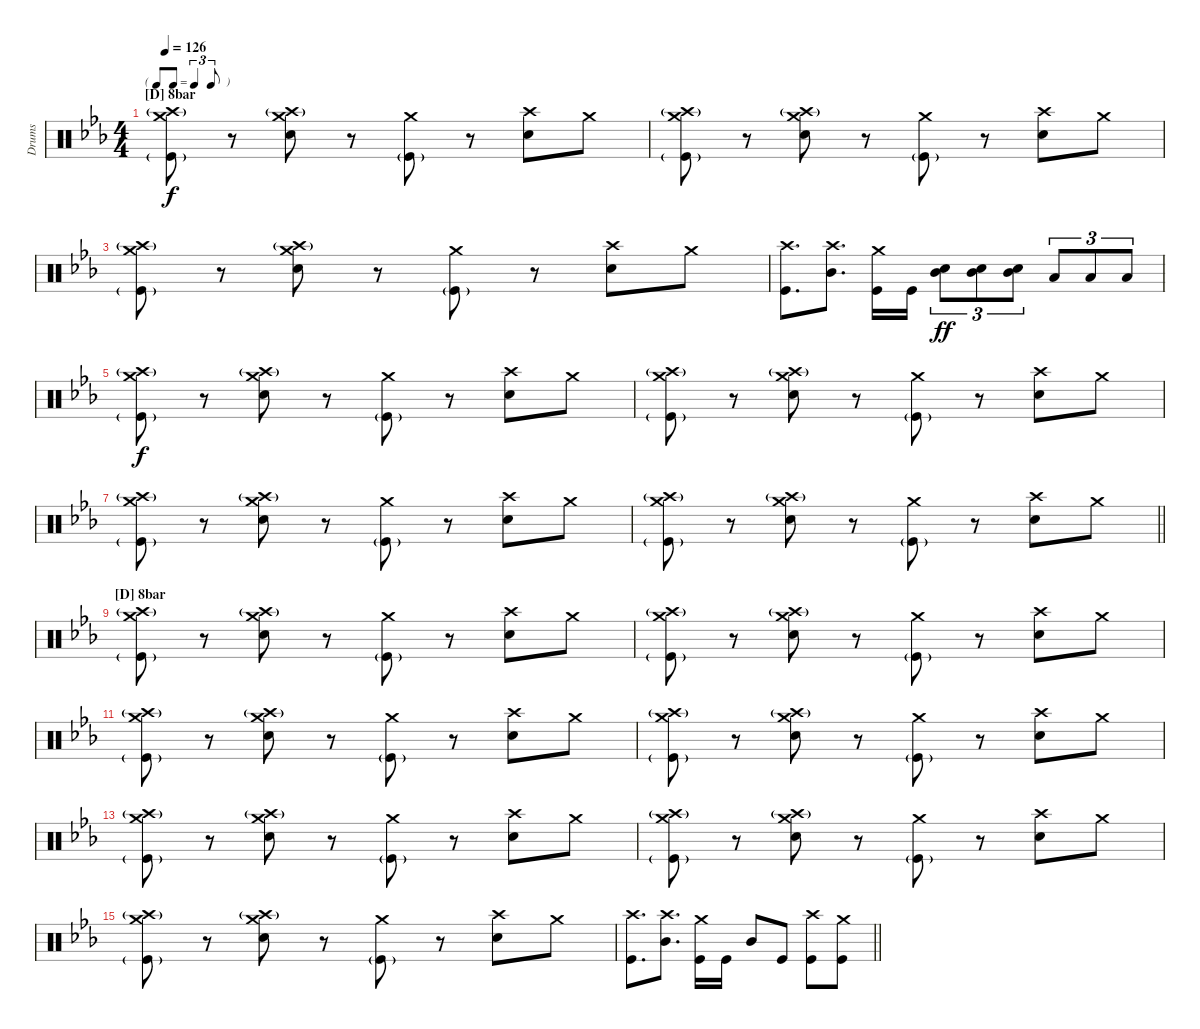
\bracketExtendMode nobrackets
\otherSystemsTrackNameOrientation horizontal
\defaultBarNumberDisplay FirstOfSystem
\track ("Drumkit" "Drums") {instrument percussion}
\staff {score}
\articulation defaults
\ts (4 4)
\tf triplet8th
\section ("D" "8bar")
\tempo 126
\clef neutral
\ks cminor
("Kick (hit)"{g} "Crash medium (hit)" "Crash high (hit)"{g}).8{dy f} r.8 ("Snare (hit) 2" "Crash medium (hit)" "Crash high (hit)"{g}).8 r.8 ("Kick (hit)"{g} "Crash medium (hit)").8 r.8 ("Snare (hit) 2" "Crash high (hit)").8 "Crash medium (hit)".8 |
("Kick (hit)"{g} "Crash medium (hit)" "Crash high (hit)"{g}).8 r.8 ("Snare (hit) 2" "Crash medium (hit)" "Crash high (hit)"{g}).8 r.8 ("Kick (hit)"{g} "Crash medium (hit)").8 r.8 ("Snare (hit) 2" "Crash high (hit)").8 "Crash medium (hit)".8 |
("Kick (hit)"{g} "Crash medium (hit)" "Crash high (hit)"{g}).8 r.8 ("Snare (hit) 2" "Crash medium (hit)" "Crash high (hit)"{g}).8 r.8 ("Kick (hit)"{g} "Crash medium (hit)").8 r.8 ("Snare (hit) 2" "Crash high (hit)").8 "Crash medium (hit)".8 |
("Kick (hit)" "Crash high (hit)").8{d} ("Mid Tom (hit)" "Crash high (hit)").8{d} ("Kick (hit)" "Crash medium (hit)").16 "Kick (hit)".16 ("Mid Tom (hit)" "Snare (hit) 2").8{tu (3 2) dy ff} ("Mid Tom (hit)" "Snare (hit) 2").8{tu (3 2)} ("Mid Tom (hit)" "Snare (hit) 2").8{tu (3 2)} "Low Tom (hit)".8{tu (3 2)} "Low Tom (hit)".8{tu (3 2)} "Low Tom (hit)".8{tu (3 2)} |
("Kick (hit)"{g} "Crash medium (hit)" "Crash high (hit)"{g}).8{dy f} r.8 ("Snare (hit) 2" "Crash medium (hit)" "Crash high (hit)"{g}).8 r.8 ("Kick (hit)"{g} "Crash medium (hit)").8 r.8 ("Snare (hit) 2" "Crash high (hit)").8 "Crash medium (hit)".8 |
("Kick (hit)"{g} "Crash medium (hit)" "Crash high (hit)"{g}).8 r.8 ("Snare (hit) 2" "Crash medium (hit)" "Crash high (hit)"{g}).8 r.8 ("Kick (hit)"{g} "Crash medium (hit)").8 r.8 ("Snare (hit) 2" "Crash high (hit)").8 "Crash medium (hit)".8 |
("Kick (hit)"{g} "Crash medium (hit)" "Crash high (hit)"{g}).8 r.8 ("Snare (hit) 2" "Crash medium (hit)" "Crash high (hit)"{g}).8 r.8 ("Kick (hit)"{g} "Crash medium (hit)").8 r.8 ("Snare (hit) 2" "Crash high (hit)").8 "Crash medium (hit)".8 |
\barLineRight lightlight
("Kick (hit)"{g} "Crash medium (hit)" "Crash high (hit)"{g}).8 r.8 ("Snare (hit) 2" "Crash medium (hit)" "Crash high (hit)"{g}).8 r.8 ("Kick (hit)"{g} "Crash medium (hit)").8 r.8 ("Snare (hit) 2" "Crash high (hit)").8 "Crash medium (hit)".8 |
\section ("D" "8bar")
("Kick (hit)"{g} "Crash medium (hit)" "Crash high (hit)"{g}).8 r.8 ("Snare (hit) 2" "Crash medium (hit)" "Crash high (hit)"{g}).8 r.8 ("Kick (hit)"{g} "Crash medium (hit)").8 r.8 ("Snare (hit) 2" "Crash high (hit)").8 "Crash medium (hit)".8 |
("Kick (hit)"{g} "Crash medium (hit)" "Crash high (hit)"{g}).8 r.8 ("Snare (hit) 2" "Crash medium (hit)" "Crash high (hit)"{g}).8 r.8 ("Kick (hit)"{g} "Crash medium (hit)").8 r.8 ("Snare (hit) 2" "Crash high (hit)").8 "Crash medium (hit)".8 |
("Kick (hit)"{g} "Crash medium (hit)" "Crash high (hit)"{g}).8 r.8 ("Snare (hit) 2" "Crash medium (hit)" "Crash high (hit)"{g}).8 r.8 ("Kick (hit)"{g} "Crash medium (hit)").8 r.8 ("Snare (hit) 2" "Crash high (hit)").8 "Crash medium (hit)".8 |
("Kick (hit)"{g} "Crash medium (hit)" "Crash high (hit)"{g}).8 r.8 ("Snare (hit) 2" "Crash medium (hit)" "Crash high (hit)"{g}).8 r.8 ("Kick (hit)"{g} "Crash medium (hit)").8 r.8 ("Snare (hit) 2" "Crash high (hit)").8 "Crash medium (hit)".8 |
("Kick (hit)"{g} "Crash medium (hit)" "Crash high (hit)"{g}).8 r.8 ("Snare (hit) 2" "Crash medium (hit)" "Crash high (hit)"{g}).8 r.8 ("Kick (hit)"{g} "Crash medium (hit)").8 r.8 ("Snare (hit) 2" "Crash high (hit)").8 "Crash medium (hit)".8 |
("Kick (hit)"{g} "Crash medium (hit)" "Crash high (hit)"{g}).8 r.8 ("Snare (hit) 2" "Crash medium (hit)" "Crash high (hit)"{g}).8 r.8 ("Kick (hit)"{g} "Crash medium (hit)").8 r.8 ("Snare (hit) 2" "Crash high (hit)").8 "Crash medium (hit)".8 |
("Kick (hit)"{g} "Crash medium (hit)" "Crash high (hit)"{g}).8 r.8 ("Snare (hit) 2" "Crash medium (hit)" "Crash high (hit)"{g}).8 r.8 ("Kick (hit)"{g} "Crash medium (hit)").8 r.8 ("Snare (hit) 2" "Crash high (hit)").8 "Crash medium (hit)".8 |
\barLineRight lightlight
("Kick (hit)" "Crash high (hit)").8{d} ("Mid Tom (hit)" "Crash high (hit)").8{d} ("Kick (hit)" "Crash medium (hit)").16 "Kick (hit)".16 "Mid Tom (hit)".8 "Kick (hit)".8 ("Kick (hit)" "Crash high (hit)").8 ("Kick (hit)" "Crash medium (hit)").8
